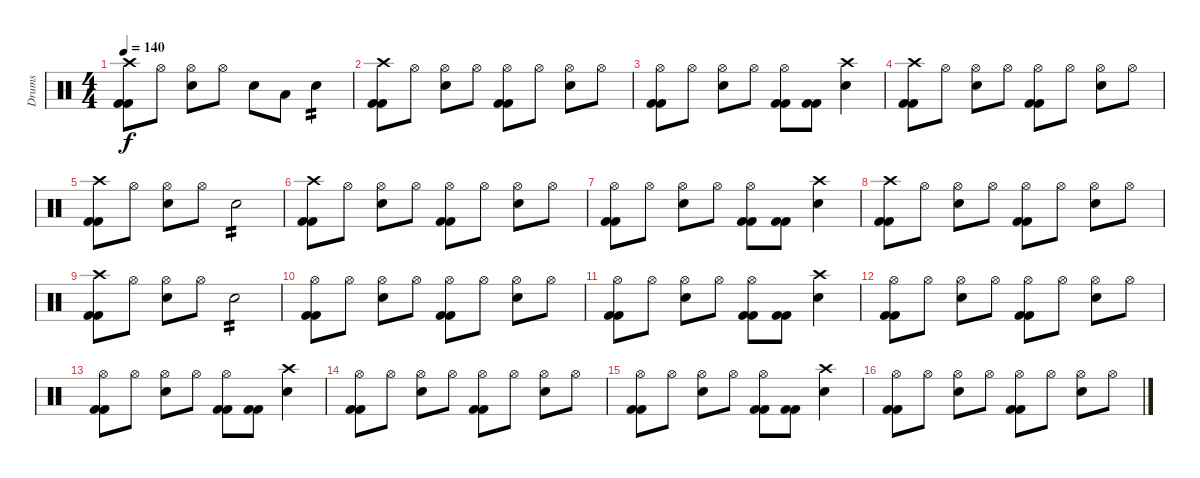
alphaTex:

\track ("Drums" "Drums") {instrument percussion}
\staff {score}
\articulation defaults
\ts (4 4)
\tempo 140
\clef neutral
\ks c
("Crash high (hit)" "Kick (hit) 2" "Kick (hit) 2").8{dy f} "Hi-Hat (open)".8 ("Electric Snare (hit)" "Hi-Hat (open)").8 "Hi-Hat (open)".8 "Electric Snare (hit)".8 "Low Tom (hit)".8 "Electric Snare (hit)".4{tp 2} |
("Crash high (hit)" "Kick (hit) 2" "Kick (hit) 2").8 "Hi-Hat (open)".8 ("Electric Snare (hit)" "Hi-Hat (open)").8 "Hi-Hat (open)".8 ("Hi-Hat (open)" "Kick (hit) 2" "Kick (hit) 2").8 "Hi-Hat (open)".8 ("Electric Snare (hit)" "Hi-Hat (open)").8 "Hi-Hat (open)".8 |
("Hi-Hat (open)" "Kick (hit) 2" "Kick (hit) 2").8 "Hi-Hat (open)".8 ("Electric Snare (hit)" "Hi-Hat (open)").8 "Hi-Hat (open)".8 ("Hi-Hat (open)" "Kick (hit) 2" "Kick (hit) 2").8 ("Kick (hit) 2" "Kick (hit) 2").8 ("Electric Snare (hit)" "Crash high (hit)").4 |
("Crash high (hit)" "Kick (hit) 2" "Kick (hit) 2").8 "Hi-Hat (open)".8 ("Electric Snare (hit)" "Hi-Hat (open)").8 "Hi-Hat (open)".8 ("Hi-Hat (open)" "Kick (hit) 2" "Kick (hit) 2").8 "Hi-Hat (open)".8 ("Electric Snare (hit)" "Hi-Hat (open)").8 "Hi-Hat (open)".8 |
("Crash high (hit)" "Kick (hit) 2" "Kick (hit) 2").8 "Hi-Hat (open)".8 ("Electric Snare (hit)" "Hi-Hat (open)").8 "Hi-Hat (open)".8 "Electric Snare (hit)".2{tp 2} |
("Crash high (hit)" "Kick (hit) 2" "Kick (hit) 2").8 "Hi-Hat (open)".8 ("Electric Snare (hit)" "Hi-Hat (open)").8 "Hi-Hat (open)".8 ("Hi-Hat (open)" "Kick (hit) 2" "Kick (hit) 2").8 "Hi-Hat (open)".8 ("Electric Snare (hit)" "Hi-Hat (open)").8 "Hi-Hat (open)".8 |
("Hi-Hat (open)" "Kick (hit) 2" "Kick (hit) 2").8 "Hi-Hat (open)".8 ("Electric Snare (hit)" "Hi-Hat (open)").8 "Hi-Hat (open)".8 ("Hi-Hat (open)" "Kick (hit) 2" "Kick (hit) 2").8 ("Kick (hit) 2" "Kick (hit) 2").8 ("Electric Snare (hit)" "Crash high (hit)").4 |
("Crash high (hit)" "Kick (hit) 2" "Kick (hit) 2").8 "Hi-Hat (open)".8 ("Electric Snare (hit)" "Hi-Hat (open)").8 "Hi-Hat (open)".8 ("Hi-Hat (open)" "Kick (hit) 2" "Kick (hit) 2").8 "Hi-Hat (open)".8 ("Electric Snare (hit)" "Hi-Hat (open)").8 "Hi-Hat (open)".8 |
("Crash high (hit)" "Kick (hit) 2" "Kick (hit) 2").8 "Hi-Hat (open)".8 ("Electric Snare (hit)" "Hi-Hat (open)").8 "Hi-Hat (open)".8 "Electric Snare (hit)".2{tp 2} |
("Hi-Hat (open)" "Kick (hit) 2" "Kick (hit) 2").8 "Hi-Hat (open)".8 ("Electric Snare (hit)" "Hi-Hat (open)").8 "Hi-Hat (open)".8 ("Hi-Hat (open)" "Kick (hit) 2" "Kick (hit) 2").8 "Hi-Hat (open)".8 ("Electric Snare (hit)" "Hi-Hat (open)").8 "Hi-Hat (open)".8 |
("Hi-Hat (open)" "Kick (hit) 2" "Kick (hit) 2").8 "Hi-Hat (open)".8 ("Electric Snare (hit)" "Hi-Hat (open)").8 "Hi-Hat (open)".8 ("Hi-Hat (open)" "Kick (hit) 2" "Kick (hit) 2").8 ("Kick (hit) 2" "Kick (hit) 2").8 ("Electric Snare (hit)" "Crash high (hit)").4 |
("Hi-Hat (open)" "Kick (hit) 2" "Kick (hit) 2").8 "Hi-Hat (open)".8 ("Electric Snare (hit)" "Hi-Hat (open)").8 "Hi-Hat (open)".8 ("Hi-Hat (open)" "Kick (hit) 2" "Kick (hit) 2").8 "Hi-Hat (open)".8 ("Electric Snare (hit)" "Hi-Hat (open)").8 "Hi-Hat (open)".8 |
("Hi-Hat (open)" "Kick (hit) 2" "Kick (hit) 2").8 "Hi-Hat (open)".8 ("Electric Snare (hit)" "Hi-Hat (open)").8 "Hi-Hat (open)".8 ("Hi-Hat (open)" "Kick (hit) 2" "Kick (hit) 2").8 ("Kick (hit) 2" "Kick (hit) 2").8 ("Electric Snare (hit)" "Crash high (hit)").4 |
("Hi-Hat (open)" "Kick (hit) 2" "Kick (hit) 2").8 "Hi-Hat (open)".8 ("Electric Snare (hit)" "Hi-Hat (open)").8 "Hi-Hat (open)".8 ("Hi-Hat (open)" "Kick (hit) 2" "Kick (hit) 2").8 "Hi-Hat (open)".8 ("Electric Snare (hit)" "Hi-Hat (open)").8 "Hi-Hat (open)".8 |
("Hi-Hat (open)" "Kick (hit) 2" "Kick (hit) 2").8 "Hi-Hat (open)".8 ("Electric Snare (hit)" "Hi-Hat (open)").8 "Hi-Hat (open)".8 ("Hi-Hat (open)" "Kick (hit) 2" "Kick (hit) 2").8 ("Kick (hit) 2" "Kick (hit) 2").8 ("Electric Snare (hit)" "Crash high (hit)").4 |
("Hi-Hat (open)" "Kick (hit) 2" "Kick (hit) 2").8 "Hi-Hat (open)".8 ("Electric Snare (hit)" "Hi-Hat (open)").8 "Hi-Hat (open)".8 ("Hi-Hat (open)" "Kick (hit) 2" "Kick (hit) 2").8 "Hi-Hat (open)".8 ("Electric Snare (hit)" "Hi-Hat (open)").8 "Hi-Hat (open)".8
